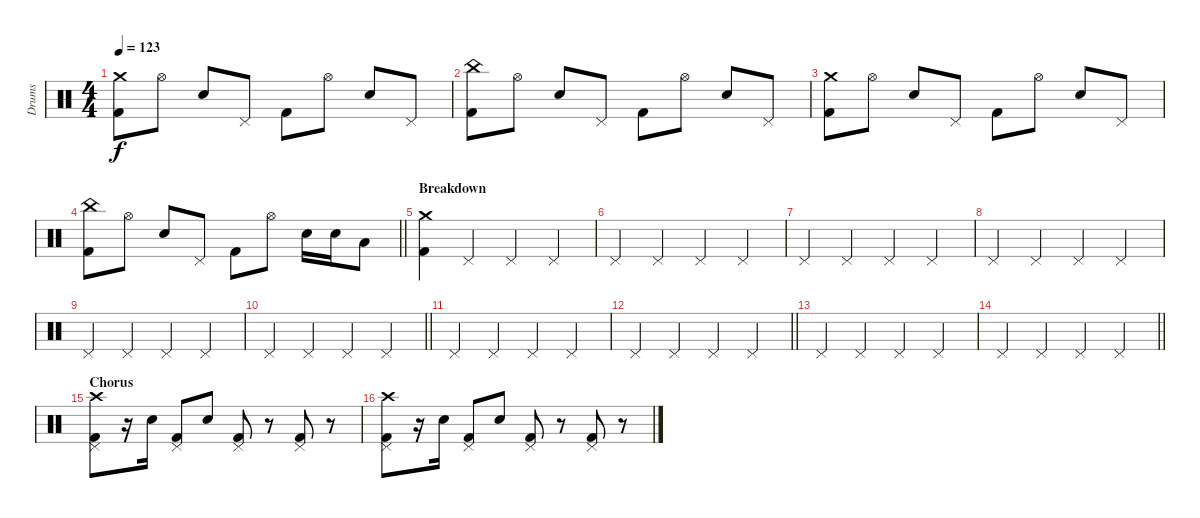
\track ("Drums" "Drums") {instrument percussion}
\staff {score}
\articulation defaults
\ts (4 4)
\tempo 123
\clef neutral
\ks c
("Crash medium (hit)" "Kick (hit) 2").8{dy f} "Hi-Hat (open)".8 "Snare (hit) 2".8 "Pedal Hi-Hat (hit)".8 "Kick (hit) 2".8 "Hi-Hat (open)".8 "Snare (hit) 2".8 "Pedal Hi-Hat (hit)".8 |
("China (hit)" "Kick (hit) 2").8 "Hi-Hat (open)".8 "Snare (hit) 2".8 "Pedal Hi-Hat (hit)".8 "Kick (hit) 2".8 "Hi-Hat (open)".8 "Snare (hit) 2".8 "Pedal Hi-Hat (hit)".8 |
("Crash medium (hit)" "Kick (hit) 2").8 "Hi-Hat (open)".8 "Snare (hit) 2".8 "Pedal Hi-Hat (hit)".8 "Kick (hit) 2".8 "Hi-Hat (open)".8 "Snare (hit) 2".8 "Pedal Hi-Hat (hit)".8 |
\barLineRight lightlight
("China (hit)" "Kick (hit) 2").8 "Hi-Hat (open)".8 "Snare (hit) 2".8 "Pedal Hi-Hat (hit)".8 "Kick (hit) 2".8 "Hi-Hat (open)".8 "Snare (hit) 2".16 "Snare (hit) 2".16 "Low Tom (hit)".8 |
\section ("" "Breakdown")
("Crash medium (hit)" "Kick (hit) 2").4 "Pedal Hi-Hat (hit)".4 "Pedal Hi-Hat (hit)".4 "Pedal Hi-Hat (hit)".4 |
"Pedal Hi-Hat (hit)".4 "Pedal Hi-Hat (hit)".4 "Pedal Hi-Hat (hit)".4 "Pedal Hi-Hat (hit)".4 |
"Pedal Hi-Hat (hit)".4 "Pedal Hi-Hat (hit)".4 "Pedal Hi-Hat (hit)".4 "Pedal Hi-Hat (hit)".4 |
"Pedal Hi-Hat (hit)".4 "Pedal Hi-Hat (hit)".4 "Pedal Hi-Hat (hit)".4 "Pedal Hi-Hat (hit)".4 |
"Pedal Hi-Hat (hit)".4 "Pedal Hi-Hat (hit)".4 "Pedal Hi-Hat (hit)".4 "Pedal Hi-Hat (hit)".4 |
\barLineRight lightlight "Pedal Hi-Hat (hit)".4 "Pedal Hi-Hat (hit)".4 "Pedal Hi-Hat (hit)".4 "Pedal Hi-Hat (hit)".4
|
"Pedal Hi-Hat (hit)".4 "Pedal Hi-Hat (hit)".4 "Pedal Hi-Hat (hit)".4 "Pedal Hi-Hat (hit)".4 |
\barLineRight lightlight "Pedal Hi-Hat (hit)".4 "Pedal Hi-Hat (hit)".4 "Pedal Hi-Hat (hit)".4 "Pedal Hi-Hat (hit)".4
|
"Pedal Hi-Hat (hit)".4 "Pedal Hi-Hat (hit)".4 "Pedal Hi-Hat (hit)".4 "Pedal Hi-Hat (hit)".4 |
\barLineRight lightlight "Pedal Hi-Hat (hit)".4 "Pedal Hi-Hat (hit)".4 "Pedal Hi-Hat (hit)".4 "Pedal Hi-Hat (hit)".4
|
\section ("" "Chorus")
("Crash high (hit)" "Pedal Hi-Hat (hit)" "Kick (hit) 2").8 r.16 "Snare (hit) 2".16 ("Pedal Hi-Hat (hit)" "Kick (hit) 2").8 "Snare (hit) 2".8 ("Pedal Hi-Hat (hit)" "Kick (hit) 2").8 r.8 ("Pedal Hi-Hat (hit)" "Kick (hit) 2").8 r.8 |
("Crash high (hit)" "Pedal Hi-Hat (hit)" "Kick (hit) 2").8 r.16 "Snare (hit) 2".16 ("Pedal Hi-Hat (hit)" "Kick (hit) 2").8 "Snare (hit) 2".8 ("Pedal Hi-Hat (hit)" "Kick (hit) 2").8 r.8 ("Pedal Hi-Hat (hit)" "Kick (hit) 2").8 r.8
